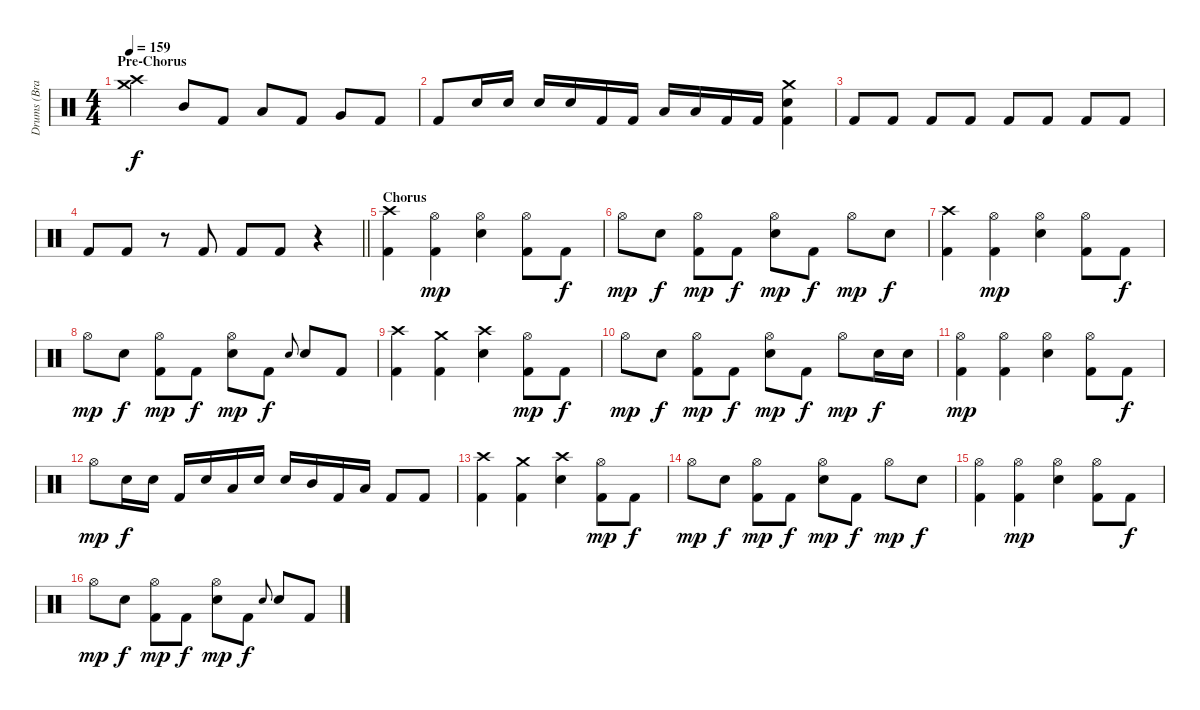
\track ("Drums (Brandon Saller)" "Drums (Bra") {instrument percussion}
\staff {score}
\articulation defaults
\ts (4 4)
\section ("" "Pre-Chorus")
\tempo 159
\clef neutral
\ks c
("Crash high (hit)" "Crash medium (hit)").4{dy f} "Mid Tom (hit)".8 "Kick (hit) 2".8 "Low Tom (hit)".8 "Kick (hit) 2".8 "Very Low Tom (hit)".8 "Kick (hit) 2".8 |
"Kick (hit) 2".8 "Electric Snare (hit)".16 "Electric Snare (hit)".16 "Electric Snare (hit)".16 "Electric Snare (hit)".16 "Kick (hit) 2".16 "Kick (hit) 2".16 "Low Tom (hit)".16 "Low Tom (hit)".16 "Kick (hit) 2".16 "Kick (hit) 2".16 ("Crash medium (hit)" "Electric Snare (hit)" "Kick (hit) 2").4 |
"Kick (hit) 2".8 "Kick (hit) 2".8 "Kick (hit) 2".8 "Kick (hit) 2".8 "Kick (hit) 2".8 "Kick (hit) 2".8 "Kick (hit) 2".8 "Kick (hit) 2".8 |
\barLineRight lightlight "Kick (hit) 2".8 "Kick (hit) 2".8
r.8 "Kick (hit) 2".8 "Kick (hit) 2".8 "Kick (hit) 2".8 r.4 |
\section ("" "Chorus")
("Crash high (hit)" "Kick (hit) 2").4 ("Hi-Hat (open)" "Kick (hit) 2").4{dy mp} ("Hi-Hat (open)" "Electric Snare (hit)").4 ("Hi-Hat (open)" "Kick (hit) 2").8 "Kick (hit) 2".8{dy f} |
"Hi-Hat (open)".8{dy mp} "Electric Snare (hit)".8{dy f} ("Hi-Hat (open)" "Kick (hit) 2").8{dy mp} "Kick (hit) 2".8{dy f} ("Hi-Hat (open)" "Electric Snare (hit)").8{dy mp} "Kick (hit) 2".8{dy f} "Hi-Hat (open)".8{dy mp} "Electric Snare (hit)".8{dy f} |
("Crash high (hit)" "Kick (hit) 2").4 ("Hi-Hat (open)" "Kick (hit) 2").4{dy mp} ("Hi-Hat (open)" "Electric Snare (hit)").4 ("Hi-Hat (open)" "Kick (hit) 2").8 "Kick (hit) 2".8{dy f} |
"Hi-Hat (open)".8{dy mp} "Electric Snare (hit)".8{dy f} ("Hi-Hat (open)" "Kick (hit) 2").8{dy mp} "Kick (hit) 2".8{dy f} ("Hi-Hat (open)" "Electric Snare (hit)").8{dy mp} "Kick (hit) 2".8{dy f} "Electric Snare (hit)".8{gr onbeat} "Electric Snare (hit)".8 "Kick (hit) 2".8 |
("Crash high (hit)" "Kick (hit) 2").4 ("Crash medium (hit)" "Kick (hit) 2").4 ("Crash high (hit)" "Electric Snare (hit)").4 ("Hi-Hat (open)" "Kick (hit) 2").8{dy mp} "Kick (hit) 2".8{dy f} |
"Hi-Hat (open)".8{dy mp} "Electric Snare (hit)".8{dy f} ("Hi-Hat (open)" "Kick (hit) 2").8{dy mp} "Kick (hit) 2".8{dy f} ("Hi-Hat (open)" "Electric Snare (hit)").8{dy mp} "Kick (hit) 2".8{dy f} "Hi-Hat (open)".8{dy mp} "Electric Snare (hit)".16{dy f} "Electric Snare (hit)".16 |
("Hi-Hat (open)" "Kick (hit) 2").4{dy mp} ("Hi-Hat (open)" "Kick (hit) 2").4 ("Hi-Hat (open)" "Electric Snare (hit)").4 ("Hi-Hat (open)" "Kick (hit) 2").8 "Kick (hit) 2".8{dy f} |
"Hi-Hat (open)".8{dy mp} "Electric Snare (hit)".16{dy f} "Electric Snare (hit)".16 "Kick (hit) 2".16 "Electric Snare (hit)".16 "Low Tom (hit)".16 "Electric Snare (hit)".16 "Electric Snare (hit)".16 "Mid Tom (hit)".16 "Kick (hit) 2".16 "Low Tom (hit)".16 "Kick (hit) 2".8 "Kick (hit) 2".8 |
("Crash high (hit)" "Kick (hit) 2").4 ("Crash medium (hit)" "Kick (hit) 2").4 ("Crash high (hit)" "Electric Snare (hit)").4 ("Hi-Hat (open)" "Kick (hit) 2").8{dy mp} "Kick (hit) 2".8{dy f} |
"Hi-Hat (open)".8{dy mp} "Electric Snare (hit)".8{dy f} ("Hi-Hat (open)" "Kick (hit) 2").8{dy mp} "Kick (hit) 2".8{dy f} ("Hi-Hat (open)" "Electric Snare (hit)").8{dy mp} "Kick (hit) 2".8{dy f} "Hi-Hat (open)".8{dy mp} "Electric Snare (hit)".8{dy f} |
("Hi-Hat (open)" "Kick (hit) 2").4 ("Hi-Hat (open)" "Kick (hit) 2").4{dy mp} ("Hi-Hat (open)" "Electric Snare (hit)").4 ("Hi-Hat (open)" "Kick (hit) 2").8 "Kick (hit) 2".8{dy f} |
"Hi-Hat (open)".8{dy mp} "Electric Snare (hit)".8{dy f} ("Hi-Hat (open)" "Kick (hit) 2").8{dy mp} "Kick (hit) 2".8{dy f} ("Hi-Hat (open)" "Electric Snare (hit)").8{dy mp} "Kick (hit) 2".8{dy f} "Electric Snare (hit)".8{gr onbeat} "Electric Snare (hit)".8 "Kick (hit) 2".8
